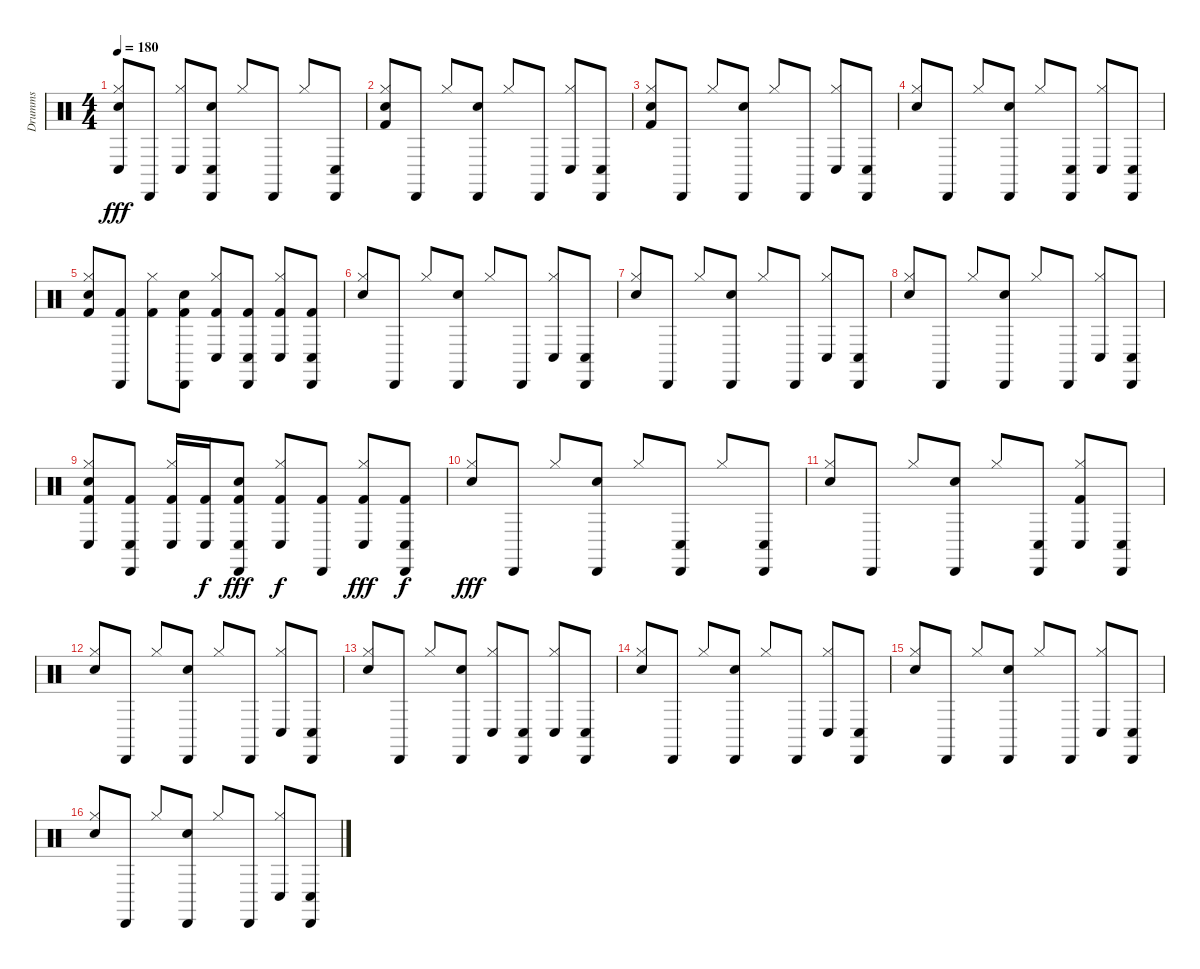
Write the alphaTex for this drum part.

\track ("Drumms" "Drumms") {instrument percussion}
\staff {score}
\articulation defaults
\ts (4 4)
\tempo 180
\clef neutral
\ks c
("Hi-Hat (closed)" "Metronome (bell)" "Conga low (hit)").8{dy fff} "Cabasa (hit)".8 ("Hi-Hat (closed)" "Conga low (hit)").8 ("Cabasa (hit)" "Metronome (bell)" "Conga low (hit)").8 "Hi-Hat (closed)".8 "Cabasa (hit)".8 "Hi-Hat (closed)".8 ("Cabasa (hit)" "Conga low (hit)").8 |
("Hi-Hat (closed)" "Metronome (bell)" "Kick (hit) 2").8 "Cabasa (hit)".8 "Hi-Hat (closed)".8 ("Cabasa (hit)" "Metronome (bell)").8 "Hi-Hat (closed)".8 "Cabasa (hit)".8 ("Hi-Hat (closed)" "Conga low (hit)").8 ("Cabasa (hit)" "Conga low (hit)").8 |
("Hi-Hat (closed)" "Metronome (bell)" "Kick (hit) 2").8 "Cabasa (hit)".8 "Hi-Hat (closed)".8 ("Cabasa (hit)" "Metronome (bell)").8 "Hi-Hat (closed)".8 "Cabasa (hit)".8 ("Hi-Hat (closed)" "Conga low (hit)").8 ("Cabasa (hit)" "Conga low (hit)").8 |
("Hi-Hat (closed)" "Metronome (bell)").8 "Cabasa (hit)".8 "Hi-Hat (closed)".8 ("Cabasa (hit)" "Metronome (bell)").8 "Hi-Hat (closed)".8 ("Cabasa (hit)" "Conga low (hit)").8 ("Hi-Hat (closed)" "Conga low (hit)").8 ("Cabasa (hit)" "Conga low (hit)").8 |
("Hi-Hat (closed)" "Metronome (bell)" "Kick (hit) 2").8 ("Cabasa (hit)" "Kick (hit) 2").8 ("Hi-Hat (closed)" "Kick (hit) 2").8 ("Cabasa (hit)" "Metronome (bell)" "Kick (hit) 2").8 ("Hi-Hat (closed)" "Conga low (hit)" "Kick (hit) 2").8 ("Cabasa (hit)" "Conga low (hit)" "Kick (hit) 2").8 ("Hi-Hat (closed)" "Conga low (hit)" "Kick (hit) 2").8 ("Cabasa (hit)" "Conga low (hit)" "Kick (hit) 2").8 |
("Hi-Hat (closed)" "Metronome (bell)").8 "Cabasa (hit)".8 "Hi-Hat (closed)".8 ("Cabasa (hit)" "Metronome (bell)").8 "Hi-Hat (closed)".8 "Cabasa (hit)".8 ("Hi-Hat (closed)" "Conga low (hit)").8 ("Cabasa (hit)" "Conga low (hit)").8 |
("Hi-Hat (closed)" "Metronome (bell)").8 "Cabasa (hit)".8 "Hi-Hat (closed)".8 ("Cabasa (hit)" "Metronome (bell)").8 "Hi-Hat (closed)".8 "Cabasa (hit)".8 ("Hi-Hat (closed)" "Conga low (hit)").8 ("Cabasa (hit)" "Conga low (hit)").8 |
("Hi-Hat (closed)" "Metronome (bell)").8 "Cabasa (hit)".8 "Hi-Hat (closed)".8 ("Cabasa (hit)" "Metronome (bell)").8 "Hi-Hat (closed)".8 "Cabasa (hit)".8 ("Hi-Hat (closed)" "Conga low (hit)").8 ("Cabasa (hit)" "Conga low (hit)").8 |
("Hi-Hat (closed)" "Metronome (bell)" "Conga low (hit)" "Kick (hit) 2").8 ("Cabasa (hit)" "Conga low (hit)" "Kick (hit) 2").8 ("Hi-Hat (closed)" "Conga low (hit)" "Kick (hit) 2").16 ("Conga low (hit)" "Kick (hit) 2").16{dy f} ("Cabasa (hit)" "Metronome (bell)" "Conga low (hit)" "Kick (hit) 2").8{dy fff} ("Hi-Hat (closed)" "Conga low (hit)" "Kick (hit) 2").8{dy f} ("Cabasa (hit)" "Kick (hit) 2").8 ("Hi-Hat (closed)" "Conga low (hit)" "Kick (hit) 2").8{dy fff} ("Cabasa (hit)" "Conga low (hit)" "Kick (hit) 2").8{dy f} |
("Hi-Hat (closed)" "Metronome (bell)").8{dy fff} "Cabasa (hit)".8 "Hi-Hat (closed)".8 ("Cabasa (hit)" "Metronome (bell)").8 "Hi-Hat (closed)".8 ("Cabasa (hit)" "Conga low (hit)").8 "Hi-Hat (closed)".8 ("Cabasa (hit)" "Conga low (hit)").8 |
("Hi-Hat (closed)" "Metronome (bell)").8 "Cabasa (hit)".8 "Hi-Hat (closed)".8 ("Cabasa (hit)" "Metronome (bell)").8 "Hi-Hat (closed)".8 ("Cabasa (hit)" "Conga low (hit)").8 ("Hi-Hat (closed)" "Conga low (hit)" "Kick (hit) 2").8 ("Cabasa (hit)" "Conga low (hit)").8 |
("Hi-Hat (closed)" "Metronome (bell)").8 "Cabasa (hit)".8 "Hi-Hat (closed)".8 ("Cabasa (hit)" "Metronome (bell)").8 "Hi-Hat (closed)".8 "Cabasa (hit)".8 ("Hi-Hat (closed)" "Conga low (hit)").8 ("Cabasa (hit)" "Conga low (hit)").8 |
("Hi-Hat (closed)" "Metronome (bell)").8 "Cabasa (hit)".8 "Hi-Hat (closed)".8 ("Cabasa (hit)" "Metronome (bell)").8 ("Hi-Hat (closed)" "Conga low (hit)").8 ("Cabasa (hit)" "Conga low (hit)").8 ("Hi-Hat (closed)" "Conga low (hit)").8 ("Cabasa (hit)" "Conga low (hit)").8 |
("Hi-Hat (closed)" "Metronome (bell)").8 "Cabasa (hit)".8 "Hi-Hat (closed)".8 ("Cabasa (hit)" "Metronome (bell)").8 "Hi-Hat (closed)".8 "Cabasa (hit)".8 ("Hi-Hat (closed)" "Conga low (hit)").8 ("Cabasa (hit)" "Conga low (hit)").8 |
("Hi-Hat (closed)" "Metronome (bell)").8 "Cabasa (hit)".8 "Hi-Hat (closed)".8 ("Cabasa (hit)" "Metronome (bell)").8 "Hi-Hat (closed)".8 "Cabasa (hit)".8 ("Hi-Hat (closed)" "Conga low (hit)").8 ("Cabasa (hit)" "Conga low (hit)").8 |
("Hi-Hat (closed)" "Metronome (bell)").8 "Cabasa (hit)".8 "Hi-Hat (closed)".8 ("Cabasa (hit)" "Metronome (bell)").8 "Hi-Hat (closed)".8 "Cabasa (hit)".8 ("Hi-Hat (closed)" "Conga low (hit)").8 ("Cabasa (hit)" "Conga low (hit)").8
